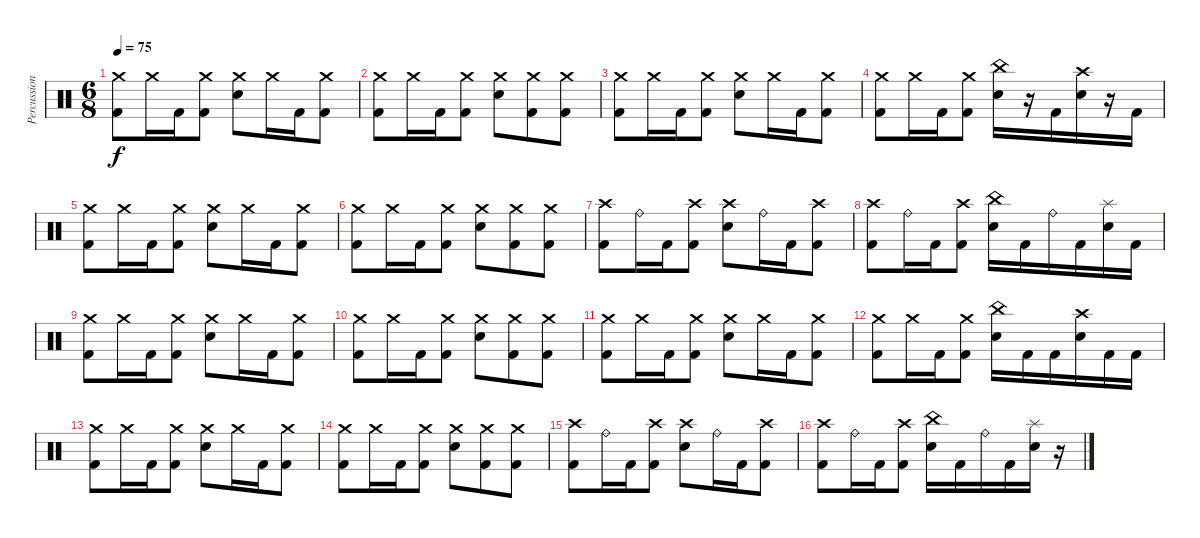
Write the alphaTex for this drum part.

\track ("Percussions" "Percussion") {instrument percussion}
\staff {score}
\articulation defaults
\ts (6 8)
\tempo 75
\clef neutral
\ks c
("Crash medium (hit)" "Kick (hit) 2").8{dy f} "Crash medium (hit)".16 "Kick (hit) 2".16 ("Crash medium (hit)" "Kick (hit) 2").8 ("Crash medium (hit)" "Electric Snare (hit)").8 "Crash medium (hit)".16 "Kick (hit) 2".16 ("Crash medium (hit)" "Kick (hit) 2").8 |
("Crash medium (hit)" "Kick (hit) 2").8 "Crash medium (hit)".16 "Kick (hit) 2".16 ("Crash medium (hit)" "Kick (hit) 2").8 ("Crash medium (hit)" "Electric Snare (hit)").8 ("Crash medium (hit)" "Kick (hit) 2").8 ("Crash medium (hit)" "Kick (hit) 2").8 |
("Crash medium (hit)" "Kick (hit) 2").8 "Crash medium (hit)".16 "Kick (hit) 2".16 ("Crash medium (hit)" "Kick (hit) 2").8 ("Crash medium (hit)" "Electric Snare (hit)").8 "Crash medium (hit)".16 "Kick (hit) 2".16 ("Crash medium (hit)" "Kick (hit) 2").8 |
("Crash medium (hit)" "Kick (hit) 2").8 "Crash medium (hit)".16 "Kick (hit) 2".16 ("Crash medium (hit)" "Kick (hit) 2").8 ("China (hit)" "Electric Snare (hit)").16 r.16 "Kick (hit) 2".16 ("Crash high (hit)" "Electric Snare (hit)").16 r.16 "Kick (hit) 2".16 |
("Crash medium (hit)" "Kick (hit) 2").8 "Crash medium (hit)".16 "Kick (hit) 2".16 ("Crash medium (hit)" "Kick (hit) 2").8 ("Crash medium (hit)" "Electric Snare (hit)").8 "Crash medium (hit)".16 "Kick (hit) 2".16 ("Crash medium (hit)" "Kick (hit) 2").8 |
("Crash medium (hit)" "Kick (hit) 2").8 "Crash medium (hit)".16 "Kick (hit) 2".16 ("Crash medium (hit)" "Kick (hit) 2").8 ("Crash medium (hit)" "Electric Snare (hit)").8 ("Crash medium (hit)" "Kick (hit) 2").8 ("Crash medium (hit)" "Kick (hit) 2").8 |
("Crash high (hit)" "Kick (hit) 2").8 "Ride (bell)".16 "Kick (hit) 2".16 ("Crash high (hit)" "Kick (hit) 2").8 ("Crash high (hit)" "Electric Snare (hit)").8 "Ride (bell)".16 "Kick (hit) 2".16 ("Crash high (hit)" "Kick (hit) 2").8 |
("Crash high (hit)" "Kick (hit) 2").8 "Ride (bell)".16 "Kick (hit) 2".16 ("Crash high (hit)" "Kick (hit) 2").8 ("China (hit)" "Electric Snare (hit)").16 "Kick (hit) 2".16 "Ride (bell)".16 "Kick (hit) 2".16 ("Splash (hit)" "Electric Snare (hit)").16 "Kick (hit) 2".16 |
("Crash medium (hit)" "Kick (hit) 2").8 "Crash medium (hit)".16 "Kick (hit) 2".16 ("Crash medium (hit)" "Kick (hit) 2").8 ("Crash medium (hit)" "Electric Snare (hit)").8 "Crash medium (hit)".16 "Kick (hit) 2".16 ("Crash medium (hit)" "Kick (hit) 2").8 |
("Crash medium (hit)" "Kick (hit) 2").8 "Crash medium (hit)".16 "Kick (hit) 2".16 ("Crash medium (hit)" "Kick (hit) 2").8 ("Crash medium (hit)" "Electric Snare (hit)").8 ("Crash medium (hit)" "Kick (hit) 2").8 ("Crash medium (hit)" "Kick (hit) 2").8 |
("Crash medium (hit)" "Kick (hit) 2").8 "Crash medium (hit)".16 "Kick (hit) 2".16 ("Crash medium (hit)" "Kick (hit) 2").8 ("Crash medium (hit)" "Electric Snare (hit)").8 "Crash medium (hit)".16 "Kick (hit) 2".16 ("Crash medium (hit)" "Kick (hit) 2").8 |
("Crash medium (hit)" "Kick (hit) 2").8 "Crash medium (hit)".16 "Kick (hit) 2".16 ("Crash medium (hit)" "Kick (hit) 2").8 ("China (hit)" "Electric Snare (hit)").16 "Kick (hit) 2".16 "Kick (hit) 2".16 ("Crash high (hit)" "Electric Snare (hit)").16 "Kick (hit) 2".16 "Kick (hit) 2".16 |
("Crash medium (hit)" "Kick (hit) 2").8 "Crash medium (hit)".16 "Kick (hit) 2".16 ("Crash medium (hit)" "Kick (hit) 2").8 ("Crash medium (hit)" "Electric Snare (hit)").8 "Crash medium (hit)".16 "Kick (hit) 2".16 ("Crash medium (hit)" "Kick (hit) 2").8 |
("Crash medium (hit)" "Kick (hit) 2").8 "Crash medium (hit)".16 "Kick (hit) 2".16 ("Crash medium (hit)" "Kick (hit) 2").8 ("Crash medium (hit)" "Electric Snare (hit)").8 ("Crash medium (hit)" "Kick (hit) 2").8 ("Crash medium (hit)" "Kick (hit) 2").8 |
("Crash high (hit)" "Kick (hit) 2").8 "Ride (bell)".16 "Kick (hit) 2".16 ("Crash high (hit)" "Kick (hit) 2").8 ("Crash high (hit)" "Electric Snare (hit)").8 "Ride (bell)".16 "Kick (hit) 2".16 ("Crash high (hit)" "Kick (hit) 2").8 |
("Crash high (hit)" "Kick (hit) 2").8 "Ride (bell)".16 "Kick (hit) 2".16 ("Crash high (hit)" "Kick (hit) 2").8 ("China (hit)" "Electric Snare (hit)").16 "Kick (hit) 2".16 "Ride (bell)".16 "Kick (hit) 2".16 ("Splash (hit)" "Electric Snare (hit)").16 r.16
